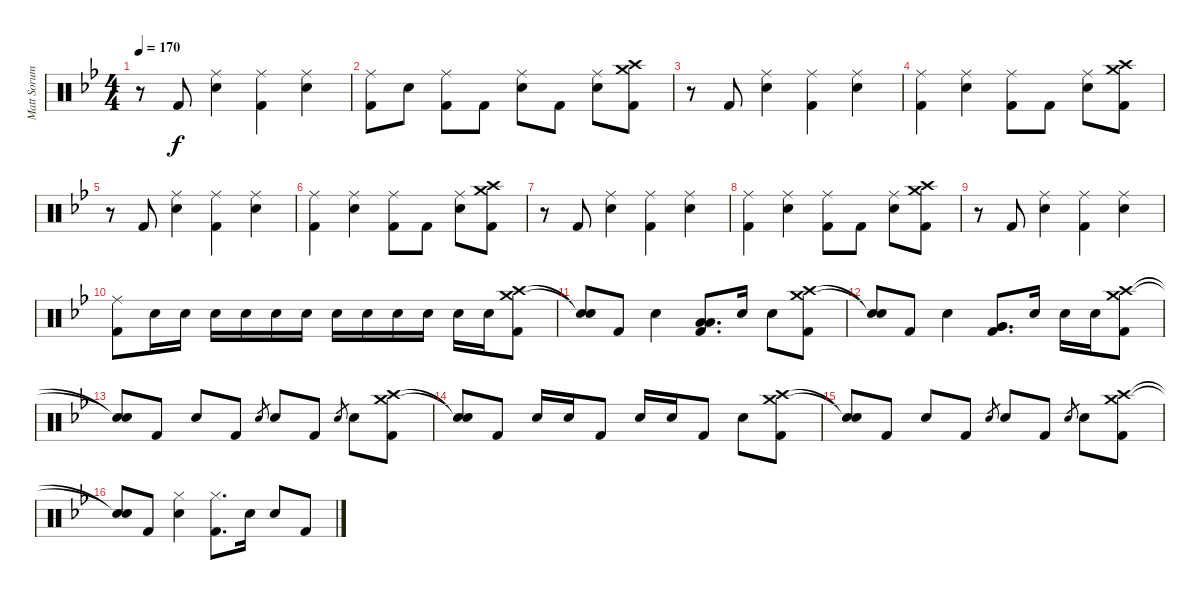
\track ("Matt Sorum - Drums" "Matt Sorum") {instrument percussion}
\staff {score}
\articulation defaults
\ts (4 4)
\tempo 170
\clef neutral
\ks bb
r.8{dy f} "Kick (hit) 2".8 ("Ride (middle)" "Snare (hit) 2").4 ("Ride (middle)" "Kick (hit) 2").4 ("Ride (middle)" "Snare (hit) 2").4 |
("Ride (middle)" "Kick (hit) 2").8 "Snare (hit) 2".8 ("Ride (middle)" "Kick (hit) 2").8 "Kick (hit) 2".8 ("Ride (middle)" "Snare (hit) 2").8 "Kick (hit) 2".8 ("Ride (middle)" "Snare (hit) 2").8 ("Crash medium (hit)" "Crash high (hit)" "Kick (hit) 2").8 |
r.8 "Kick (hit) 2".8 ("Ride (middle)" "Snare (hit) 2").4 ("Ride (middle)" "Kick (hit) 2").4 ("Ride (middle)" "Snare (hit) 2").4 |
("Ride (middle)" "Kick (hit) 2").4 ("Ride (middle)" "Snare (hit) 2").4 ("Ride (middle)" "Kick (hit) 2").8 "Kick (hit) 2".8 ("Ride (middle)" "Snare (hit) 2").8 ("Crash medium (hit)" "Crash high (hit)" "Kick (hit) 2").8 |
r.8 "Kick (hit) 2".8 ("Ride (middle)" "Snare (hit) 2").4 ("Ride (middle)" "Kick (hit) 2").4 ("Ride (middle)" "Snare (hit) 2").4 |
("Ride (middle)" "Kick (hit) 2").4 ("Ride (middle)" "Snare (hit) 2").4 ("Ride (middle)" "Kick (hit) 2").8 "Kick (hit) 2".8 ("Ride (middle)" "Snare (hit) 2").8 ("Crash medium (hit)" "Crash high (hit)" "Kick (hit) 2").8 |
r.8 "Kick (hit) 2".8 ("Ride (middle)" "Snare (hit) 2").4 ("Ride (middle)" "Kick (hit) 2").4 ("Ride (middle)" "Snare (hit) 2").4 |
("Ride (middle)" "Kick (hit) 2").4 ("Ride (middle)" "Snare (hit) 2").4 ("Ride (middle)" "Kick (hit) 2").8 "Kick (hit) 2".8 ("Ride (middle)" "Snare (hit) 2").8 ("Crash medium (hit)" "Crash high (hit)" "Kick (hit) 2").8 |
r.8 "Kick (hit) 2".8 ("Ride (middle)" "Snare (hit) 2").4 ("Ride (middle)" "Kick (hit) 2").4 ("Ride (middle)" "Snare (hit) 2").4 |
("Ride (middle)" "Kick (hit) 2").8 "Snare (hit) 2".16 "Snare (hit) 2".16 "Snare (hit) 2".16 "Snare (hit) 2".16 "Snare (hit) 2".16 "Snare (hit) 2".16 "Snare (hit) 2".16 "Snare (hit) 2".16 "Snare (hit) 2".16 "Snare (hit) 2".16 "Snare (hit) 2".16 "Snare (hit) 2".16 ("Crash medium (hit)" "Crash high (hit)" "Kick (hit) 2").8 |
("Snare (hit)"{t} "Snare (hit)"{t}).8 "Kick (hit) 2".8 "Snare (hit) 2".4 ("Low Tom (hit)" "Low Tom (hit)" "Kick (hit) 2").8{d} "Snare (hit) 2".16 "Snare (hit) 2".8 ("Crash medium (hit)" "Crash high (hit)" "Kick (hit) 2").8 |
("Snare (hit)"{t} "Snare (hit)"{t}).8 "Kick (hit) 2".8 "Snare (hit) 2".4 ("Very Low Tom (hit)" "Very Low Tom (hit)" "Kick (hit) 2").8{d} "Snare (hit) 2".16 "Snare (hit) 2".16 "Snare (hit) 2".16 ("Crash medium (hit)" "Crash high (hit)" "Kick (hit) 2").8 |
("Snare (hit)"{t} "Snare (hit)"{t}).8 "Kick (hit) 2".8 "Snare (hit) 2".8 "Kick (hit) 2".8 "Snare (hit) 2".8{gr} "Snare (hit) 2".8 "Kick (hit) 2".8 "Snare (hit) 2".8{gr} "Snare (hit) 2".8 ("Crash medium (hit)" "Crash high (hit)" "Kick (hit) 2").8 |
("Snare (hit)"{t} "Snare (hit)"{t}).8 "Kick (hit) 2".8 "Snare (hit) 2".16 "Snare (hit) 2".16 "Kick (hit) 2".8 "Snare (hit) 2".16 "Snare (hit) 2".16 "Kick (hit) 2".8 "Snare (hit) 2".8 ("Crash medium (hit)" "Crash high (hit)" "Kick (hit) 2").8 |
("Snare (hit)"{t} "Snare (hit)"{t}).8 "Kick (hit) 2".8 "Snare (hit) 2".8 "Kick (hit) 2".8 "Snare (hit) 2".8{gr} "Snare (hit) 2".8 "Kick (hit) 2".8 "Snare (hit) 2".8{gr} "Snare (hit) 2".8 ("Crash medium (hit)" "Crash high (hit)" "Kick (hit) 2").8 |
("Snare (hit)"{t} "Snare (hit)"{t}).8 "Kick (hit) 2".8 ("Hi-Hat (closed)" "Snare (hit) 2").4 ("Hi-Hat (closed)" "Kick (hit) 2").8{d} "Snare (hit) 2".16 "Snare (hit) 2".8 "Kick (hit) 2".8
